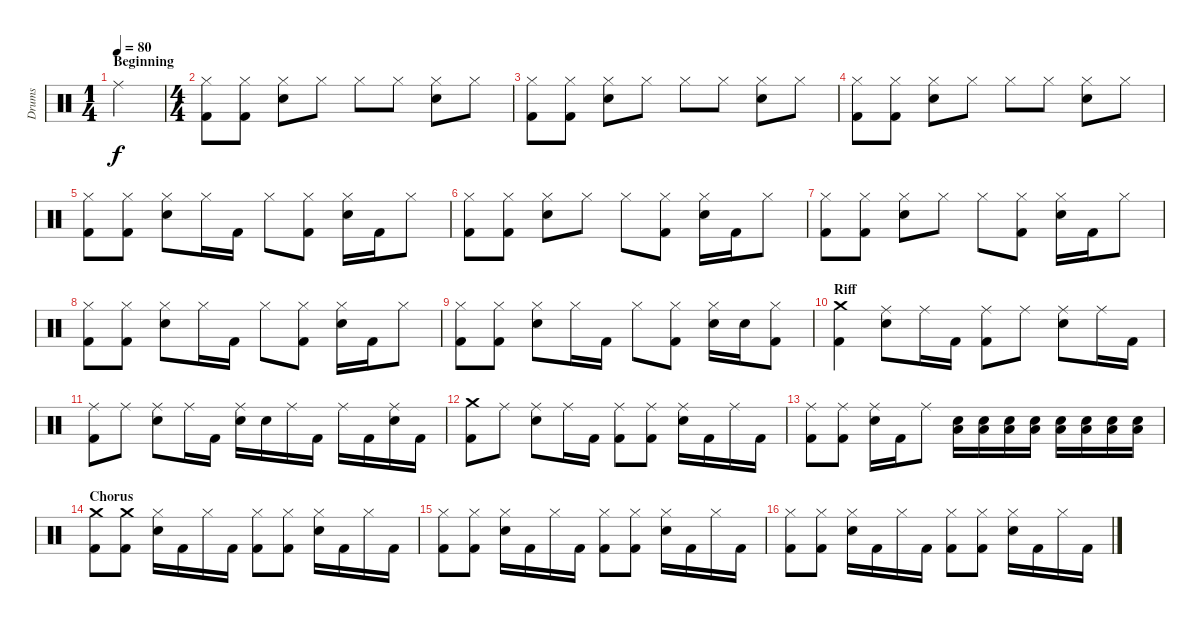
\track ("Drums" "Drums") {instrument percussion}
\staff {score}
\articulation defaults
\ts (1 4)
\section ("" "Beginning")
\tempo 80
\clef neutral
\ks c "Ride (middle)".4{dy f}
|
\ts (4 4)
("Hi-Hat (closed)" "Kick (hit) 2").8 ("Hi-Hat (closed)" "Kick (hit) 2").8 ("Hi-Hat (closed)" "Electric Snare (hit)").8 "Hi-Hat (closed)".8 "Hi-Hat (closed)".8 "Hi-Hat (closed)".8 ("Hi-Hat (closed)" "Electric Snare (hit)").8 "Hi-Hat (closed)".8 |
("Hi-Hat (closed)" "Kick (hit) 2").8 ("Hi-Hat (closed)" "Kick (hit) 2").8 ("Hi-Hat (closed)" "Electric Snare (hit)").8 "Hi-Hat (closed)".8 "Hi-Hat (closed)".8 "Hi-Hat (closed)".8 ("Hi-Hat (closed)" "Electric Snare (hit)").8 "Hi-Hat (closed)".8 |
("Hi-Hat (closed)" "Kick (hit) 2").8 ("Hi-Hat (closed)" "Kick (hit) 2").8 ("Hi-Hat (closed)" "Electric Snare (hit)").8 "Hi-Hat (closed)".8 "Hi-Hat (closed)".8 "Hi-Hat (closed)".8 ("Hi-Hat (closed)" "Electric Snare (hit)").8 "Hi-Hat (closed)".8 |
("Hi-Hat (closed)" "Kick (hit) 2").8 ("Hi-Hat (closed)" "Kick (hit) 2").8 ("Hi-Hat (closed)" "Electric Snare (hit)").8 "Hi-Hat (closed)".16 "Kick (hit) 2".16 "Hi-Hat (closed)".8 ("Hi-Hat (closed)" "Kick (hit) 2").8 ("Hi-Hat (closed)" "Electric Snare (hit)").16 "Kick (hit) 2".16 "Hi-Hat (closed)".8 |
("Hi-Hat (closed)" "Kick (hit) 2").8 ("Hi-Hat (closed)" "Kick (hit) 2").8 ("Hi-Hat (closed)" "Electric Snare (hit)").8 "Hi-Hat (closed)".8 "Hi-Hat (closed)".8 ("Hi-Hat (closed)" "Kick (hit) 2").8 ("Hi-Hat (closed)" "Electric Snare (hit)").16 "Kick (hit) 2".16 "Hi-Hat (closed)".8 |
("Hi-Hat (closed)" "Kick (hit) 2").8 ("Hi-Hat (closed)" "Kick (hit) 2").8 ("Hi-Hat (closed)" "Electric Snare (hit)").8 "Hi-Hat (closed)".8 "Hi-Hat (closed)".8 ("Hi-Hat (closed)" "Kick (hit) 2").8 ("Hi-Hat (closed)" "Electric Snare (hit)").16 "Kick (hit) 2".16 "Hi-Hat (closed)".8 |
("Hi-Hat (closed)" "Kick (hit) 2").8 ("Hi-Hat (closed)" "Kick (hit) 2").8 ("Hi-Hat (closed)" "Electric Snare (hit)").8 "Hi-Hat (closed)".16 "Kick (hit) 2".16 "Hi-Hat (closed)".8 ("Hi-Hat (closed)" "Kick (hit) 2").8 ("Hi-Hat (closed)" "Electric Snare (hit)").16 "Kick (hit) 2".16 "Hi-Hat (closed)".8 |
("Hi-Hat (closed)" "Kick (hit) 2").8 ("Hi-Hat (closed)" "Kick (hit) 2").8 ("Hi-Hat (closed)" "Electric Snare (hit)").8 "Hi-Hat (closed)".16 "Kick (hit) 2".16 "Hi-Hat (closed)".8 ("Hi-Hat (closed)" "Kick (hit) 2").8 ("Hi-Hat (closed)" "Electric Snare (hit)").16 "Electric Snare (hit)".16 ("Hi-Hat (closed)" "Kick (hit) 2").8 |
\section ("" "Riff")
("Crash medium (hit)" "Kick (hit) 2").4 ("Ride (middle)" "Electric Snare (hit)").8 "Ride (middle)".16 "Kick (hit) 2".16 ("Ride (middle)" "Kick (hit) 2").8 "Ride (middle)".8 ("Ride (middle)" "Electric Snare (hit)").8 "Ride (middle)".16 "Kick (hit) 2".16 |
("Ride (middle)" "Kick (hit) 2").8 "Ride (middle)".8 ("Ride (middle)" "Electric Snare (hit)").8 "Ride (middle)".16 "Kick (hit) 2".16 ("Ride (middle)" "Electric Snare (hit)").16 "Electric Snare (hit)".16 "Ride (middle)".16 "Kick (hit) 2".16 "Ride (middle)".16 "Kick (hit) 2".16 ("Ride (middle)" "Electric Snare (hit)").16 "Kick (hit) 2".16 |
("Crash medium (hit)" "Kick (hit) 2").8 "Ride (middle)".8 ("Ride (middle)" "Electric Snare (hit)").8 "Ride (middle)".16 "Kick (hit) 2".16 ("Ride (middle)" "Kick (hit) 2").8 ("Ride (middle)" "Kick (hit) 2").8 ("Ride (middle)" "Electric Snare (hit)").16 "Kick (hit) 2".16 "Ride (middle)".16 "Kick (hit) 2".16 |
("Ride (middle)" "Kick (hit) 2").8 ("Ride (middle)" "Kick (hit) 2").8 ("Ride (middle)" "Electric Snare (hit)").16 "Kick (hit) 2".16 "Ride (middle)".8 ("Electric Snare (hit)" "Low Floor Tom (hit)").16 ("Electric Snare (hit)" "Low Floor Tom (hit)").16 ("Electric Snare (hit)" "Low Floor Tom (hit)").16 ("Electric Snare (hit)" "Low Floor Tom (hit)").16 ("Electric Snare (hit)" "Low Floor Tom (hit)").16 ("Electric Snare (hit)" "Low Floor Tom (hit)").16 ("Electric Snare (hit)" "Low Floor Tom (hit)").16 ("Electric Snare (hit)" "Low Floor Tom (hit)").16 |
\section ("" "Chorus")
("Crash medium (hit)" "Kick (hit) 2").8 ("Crash medium (hit)" "Kick (hit) 2").8 ("Hi-Hat (closed)" "Electric Snare (hit)").16 "Kick (hit) 2".16 "Hi-Hat (closed)".16 "Kick (hit) 2".16 ("Hi-Hat (closed)" "Kick (hit) 2").8 ("Hi-Hat (closed)" "Kick (hit) 2").8 ("Hi-Hat (closed)" "Electric Snare (hit)").16 "Kick (hit) 2".16 "Hi-Hat (closed)".16 "Kick (hit) 2".16 |
("Hi-Hat (closed)" "Kick (hit) 2").8 ("Hi-Hat (closed)" "Kick (hit) 2").8 ("Hi-Hat (closed)" "Electric Snare (hit)").16 "Kick (hit) 2".16 "Hi-Hat (closed)".16 "Kick (hit) 2".16 ("Hi-Hat (closed)" "Kick (hit) 2").8 ("Hi-Hat (closed)" "Kick (hit) 2").8 ("Hi-Hat (closed)" "Electric Snare (hit)").16 "Kick (hit) 2".16 "Hi-Hat (closed)".16 "Kick (hit) 2".16 |
("Hi-Hat (closed)" "Kick (hit) 2").8 ("Hi-Hat (closed)" "Kick (hit) 2").8 ("Hi-Hat (closed)" "Electric Snare (hit)").16 "Kick (hit) 2".16 "Hi-Hat (closed)".16 "Kick (hit) 2".16 ("Hi-Hat (closed)" "Kick (hit) 2").8 ("Hi-Hat (closed)" "Kick (hit) 2").8 ("Hi-Hat (closed)" "Electric Snare (hit)").16 "Kick (hit) 2".16 "Hi-Hat (closed)".16 "Kick (hit) 2".16
